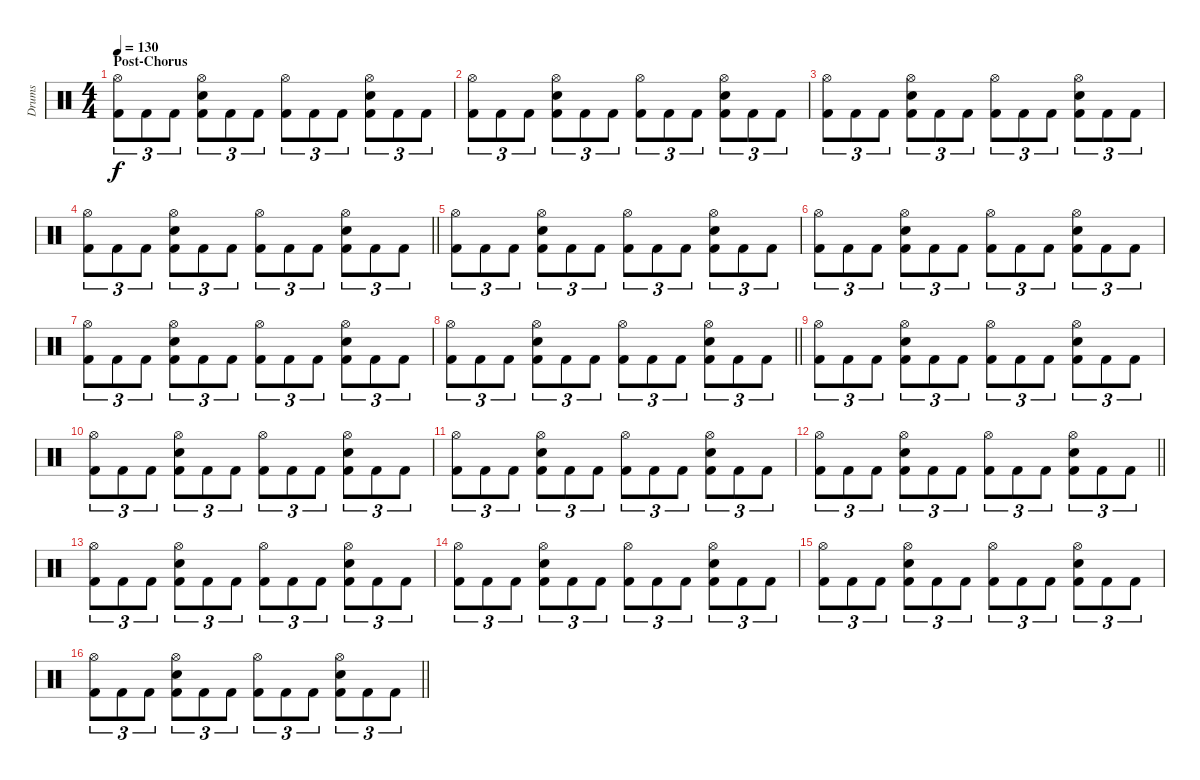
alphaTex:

\track ("Drums" "Drums") {instrument percussion}
\staff {score}
\articulation defaults
\ts (4 4)
\section ("" "Post-Chorus")
\tempo 130
\clef neutral
\ks c
("Hi-Hat (open)" "Kick (hit) 2").8{tu (3 2) dy f} "Kick (hit) 2".8{tu (3 2)} "Kick (hit) 2".8{tu (3 2)} ("Hi-Hat (open)" "Snare (hit) 2" "Kick (hit) 2").8{tu (3 2)} "Kick (hit) 2".8{tu (3 2)} "Kick (hit) 2".8{tu (3 2)} ("Hi-Hat (open)" "Kick (hit) 2").8{tu (3 2)} "Kick (hit) 2".8{tu (3 2)} "Kick (hit) 2".8{tu (3 2)} ("Hi-Hat (open)" "Snare (hit) 2" "Kick (hit) 2").8{tu (3 2)} "Kick (hit) 2".8{tu (3 2)} "Kick (hit) 2".8{tu (3 2)} |
("Hi-Hat (open)" "Kick (hit) 2").8{tu (3 2)} "Kick (hit) 2".8{tu (3 2)} "Kick (hit) 2".8{tu (3 2)} ("Hi-Hat (open)" "Snare (hit) 2" "Kick (hit) 2").8{tu (3 2)} "Kick (hit) 2".8{tu (3 2)} "Kick (hit) 2".8{tu (3 2)} ("Hi-Hat (open)" "Kick (hit) 2").8{tu (3 2)} "Kick (hit) 2".8{tu (3 2)} "Kick (hit) 2".8{tu (3 2)} ("Hi-Hat (open)" "Snare (hit) 2" "Kick (hit) 2").8{tu (3 2)} "Kick (hit) 2".8{tu (3 2)} "Kick (hit) 2".8{tu (3 2)} |
("Hi-Hat (open)" "Kick (hit) 2").8{tu (3 2)} "Kick (hit) 2".8{tu (3 2)} "Kick (hit) 2".8{tu (3 2)} ("Hi-Hat (open)" "Snare (hit) 2" "Kick (hit) 2").8{tu (3 2)} "Kick (hit) 2".8{tu (3 2)} "Kick (hit) 2".8{tu (3 2)} ("Hi-Hat (open)" "Kick (hit) 2").8{tu (3 2)} "Kick (hit) 2".8{tu (3 2)} "Kick (hit) 2".8{tu (3 2)} ("Hi-Hat (open)" "Snare (hit) 2" "Kick (hit) 2").8{tu (3 2)} "Kick (hit) 2".8{tu (3 2)} "Kick (hit) 2".8{tu (3 2)} |
\barLineRight lightlight
("Hi-Hat (open)" "Kick (hit) 2").8{tu (3 2)} "Kick (hit) 2".8{tu (3 2)} "Kick (hit) 2".8{tu (3 2)} ("Hi-Hat (open)" "Snare (hit) 2" "Kick (hit) 2").8{tu (3 2)} "Kick (hit) 2".8{tu (3 2)} "Kick (hit) 2".8{tu (3 2)} ("Hi-Hat (open)" "Kick (hit) 2").8{tu (3 2)} "Kick (hit) 2".8{tu (3 2)} "Kick (hit) 2".8{tu (3 2)} ("Hi-Hat (open)" "Snare (hit) 2" "Kick (hit) 2").8{tu (3 2)} "Kick (hit) 2".8{tu (3 2)} "Kick (hit) 2".8{tu (3 2)} |
("Hi-Hat (open)" "Kick (hit) 2").8{tu (3 2)} "Kick (hit) 2".8{tu (3 2)} "Kick (hit) 2".8{tu (3 2)} ("Hi-Hat (open)" "Snare (hit) 2" "Kick (hit) 2").8{tu (3 2)} "Kick (hit) 2".8{tu (3 2)} "Kick (hit) 2".8{tu (3 2)} ("Hi-Hat (open)" "Kick (hit) 2").8{tu (3 2)} "Kick (hit) 2".8{tu (3 2)} "Kick (hit) 2".8{tu (3 2)} ("Hi-Hat (open)" "Snare (hit) 2" "Kick (hit) 2").8{tu (3 2)} "Kick (hit) 2".8{tu (3 2)} "Kick (hit) 2".8{tu (3 2)} |
("Hi-Hat (open)" "Kick (hit) 2").8{tu (3 2)} "Kick (hit) 2".8{tu (3 2)} "Kick (hit) 2".8{tu (3 2)} ("Hi-Hat (open)" "Snare (hit) 2" "Kick (hit) 2").8{tu (3 2)} "Kick (hit) 2".8{tu (3 2)} "Kick (hit) 2".8{tu (3 2)} ("Hi-Hat (open)" "Kick (hit) 2").8{tu (3 2)} "Kick (hit) 2".8{tu (3 2)} "Kick (hit) 2".8{tu (3 2)} ("Hi-Hat (open)" "Snare (hit) 2" "Kick (hit) 2").8{tu (3 2)} "Kick (hit) 2".8{tu (3 2)} "Kick (hit) 2".8{tu (3 2)} |
("Hi-Hat (open)" "Kick (hit) 2").8{tu (3 2)} "Kick (hit) 2".8{tu (3 2)} "Kick (hit) 2".8{tu (3 2)} ("Hi-Hat (open)" "Snare (hit) 2" "Kick (hit) 2").8{tu (3 2)} "Kick (hit) 2".8{tu (3 2)} "Kick (hit) 2".8{tu (3 2)} ("Hi-Hat (open)" "Kick (hit) 2").8{tu (3 2)} "Kick (hit) 2".8{tu (3 2)} "Kick (hit) 2".8{tu (3 2)} ("Hi-Hat (open)" "Snare (hit) 2" "Kick (hit) 2").8{tu (3 2)} "Kick (hit) 2".8{tu (3 2)} "Kick (hit) 2".8{tu (3 2)} |
\barLineRight lightlight
("Hi-Hat (open)" "Kick (hit) 2").8{tu (3 2)} "Kick (hit) 2".8{tu (3 2)} "Kick (hit) 2".8{tu (3 2)} ("Hi-Hat (open)" "Snare (hit) 2" "Kick (hit) 2").8{tu (3 2)} "Kick (hit) 2".8{tu (3 2)} "Kick (hit) 2".8{tu (3 2)} ("Hi-Hat (open)" "Kick (hit) 2").8{tu (3 2)} "Kick (hit) 2".8{tu (3 2)} "Kick (hit) 2".8{tu (3 2)} ("Hi-Hat (open)" "Snare (hit) 2" "Kick (hit) 2").8{tu (3 2)} "Kick (hit) 2".8{tu (3 2)} "Kick (hit) 2".8{tu (3 2)} |
("Hi-Hat (open)" "Kick (hit) 2").8{tu (3 2)} "Kick (hit) 2".8{tu (3 2)} "Kick (hit) 2".8{tu (3 2)} ("Hi-Hat (open)" "Snare (hit) 2" "Kick (hit) 2").8{tu (3 2)} "Kick (hit) 2".8{tu (3 2)} "Kick (hit) 2".8{tu (3 2)} ("Hi-Hat (open)" "Kick (hit) 2").8{tu (3 2)} "Kick (hit) 2".8{tu (3 2)} "Kick (hit) 2".8{tu (3 2)} ("Hi-Hat (open)" "Snare (hit) 2" "Kick (hit) 2").8{tu (3 2)} "Kick (hit) 2".8{tu (3 2)} "Kick (hit) 2".8{tu (3 2)} |
("Hi-Hat (open)" "Kick (hit) 2").8{tu (3 2)} "Kick (hit) 2".8{tu (3 2)} "Kick (hit) 2".8{tu (3 2)} ("Hi-Hat (open)" "Snare (hit) 2" "Kick (hit) 2").8{tu (3 2)} "Kick (hit) 2".8{tu (3 2)} "Kick (hit) 2".8{tu (3 2)} ("Hi-Hat (open)" "Kick (hit) 2").8{tu (3 2)} "Kick (hit) 2".8{tu (3 2)} "Kick (hit) 2".8{tu (3 2)} ("Hi-Hat (open)" "Snare (hit) 2" "Kick (hit) 2").8{tu (3 2)} "Kick (hit) 2".8{tu (3 2)} "Kick (hit) 2".8{tu (3 2)} |
("Hi-Hat (open)" "Kick (hit) 2").8{tu (3 2)} "Kick (hit) 2".8{tu (3 2)} "Kick (hit) 2".8{tu (3 2)} ("Hi-Hat (open)" "Snare (hit) 2" "Kick (hit) 2").8{tu (3 2)} "Kick (hit) 2".8{tu (3 2)} "Kick (hit) 2".8{tu (3 2)} ("Hi-Hat (open)" "Kick (hit) 2").8{tu (3 2)} "Kick (hit) 2".8{tu (3 2)} "Kick (hit) 2".8{tu (3 2)} ("Hi-Hat (open)" "Snare (hit) 2" "Kick (hit) 2").8{tu (3 2)} "Kick (hit) 2".8{tu (3 2)} "Kick (hit) 2".8{tu (3 2)} |
\barLineRight lightlight
("Hi-Hat (open)" "Kick (hit) 2").8{tu (3 2)} "Kick (hit) 2".8{tu (3 2)} "Kick (hit) 2".8{tu (3 2)} ("Hi-Hat (open)" "Snare (hit) 2" "Kick (hit) 2").8{tu (3 2)} "Kick (hit) 2".8{tu (3 2)} "Kick (hit) 2".8{tu (3 2)} ("Hi-Hat (open)" "Kick (hit) 2").8{tu (3 2)} "Kick (hit) 2".8{tu (3 2)} "Kick (hit) 2".8{tu (3 2)} ("Hi-Hat (open)" "Snare (hit) 2" "Kick (hit) 2").8{tu (3 2)} "Kick (hit) 2".8{tu (3 2)} "Kick (hit) 2".8{tu (3 2)} |
("Hi-Hat (open)" "Kick (hit) 2").8{tu (3 2)} "Kick (hit) 2".8{tu (3 2)} "Kick (hit) 2".8{tu (3 2)} ("Hi-Hat (open)" "Snare (hit) 2" "Kick (hit) 2").8{tu (3 2)} "Kick (hit) 2".8{tu (3 2)} "Kick (hit) 2".8{tu (3 2)} ("Hi-Hat (open)" "Kick (hit) 2").8{tu (3 2)} "Kick (hit) 2".8{tu (3 2)} "Kick (hit) 2".8{tu (3 2)} ("Hi-Hat (open)" "Snare (hit) 2" "Kick (hit) 2").8{tu (3 2)} "Kick (hit) 2".8{tu (3 2)} "Kick (hit) 2".8{tu (3 2)} |
("Hi-Hat (open)" "Kick (hit) 2").8{tu (3 2)} "Kick (hit) 2".8{tu (3 2)} "Kick (hit) 2".8{tu (3 2)} ("Hi-Hat (open)" "Snare (hit) 2" "Kick (hit) 2").8{tu (3 2)} "Kick (hit) 2".8{tu (3 2)} "Kick (hit) 2".8{tu (3 2)} ("Hi-Hat (open)" "Kick (hit) 2").8{tu (3 2)} "Kick (hit) 2".8{tu (3 2)} "Kick (hit) 2".8{tu (3 2)} ("Hi-Hat (open)" "Snare (hit) 2" "Kick (hit) 2").8{tu (3 2)} "Kick (hit) 2".8{tu (3 2)} "Kick (hit) 2".8{tu (3 2)} |
("Hi-Hat (open)" "Kick (hit) 2").8{tu (3 2)} "Kick (hit) 2".8{tu (3 2)} "Kick (hit) 2".8{tu (3 2)} ("Hi-Hat (open)" "Snare (hit) 2" "Kick (hit) 2").8{tu (3 2)} "Kick (hit) 2".8{tu (3 2)} "Kick (hit) 2".8{tu (3 2)} ("Hi-Hat (open)" "Kick (hit) 2").8{tu (3 2)} "Kick (hit) 2".8{tu (3 2)} "Kick (hit) 2".8{tu (3 2)} ("Hi-Hat (open)" "Snare (hit) 2" "Kick (hit) 2").8{tu (3 2)} "Kick (hit) 2".8{tu (3 2)} "Kick (hit) 2".8{tu (3 2)} |
\barLineRight lightlight
("Hi-Hat (open)" "Kick (hit) 2").8{tu (3 2)} "Kick (hit) 2".8{tu (3 2)} "Kick (hit) 2".8{tu (3 2)} ("Hi-Hat (open)" "Snare (hit) 2" "Kick (hit) 2").8{tu (3 2)} "Kick (hit) 2".8{tu (3 2)} "Kick (hit) 2".8{tu (3 2)} ("Hi-Hat (open)" "Kick (hit) 2").8{tu (3 2)} "Kick (hit) 2".8{tu (3 2)} "Kick (hit) 2".8{tu (3 2)} ("Hi-Hat (open)" "Snare (hit) 2" "Kick (hit) 2").8{tu (3 2)} "Kick (hit) 2".8{tu (3 2)} "Kick (hit) 2".8{tu (3 2)}
